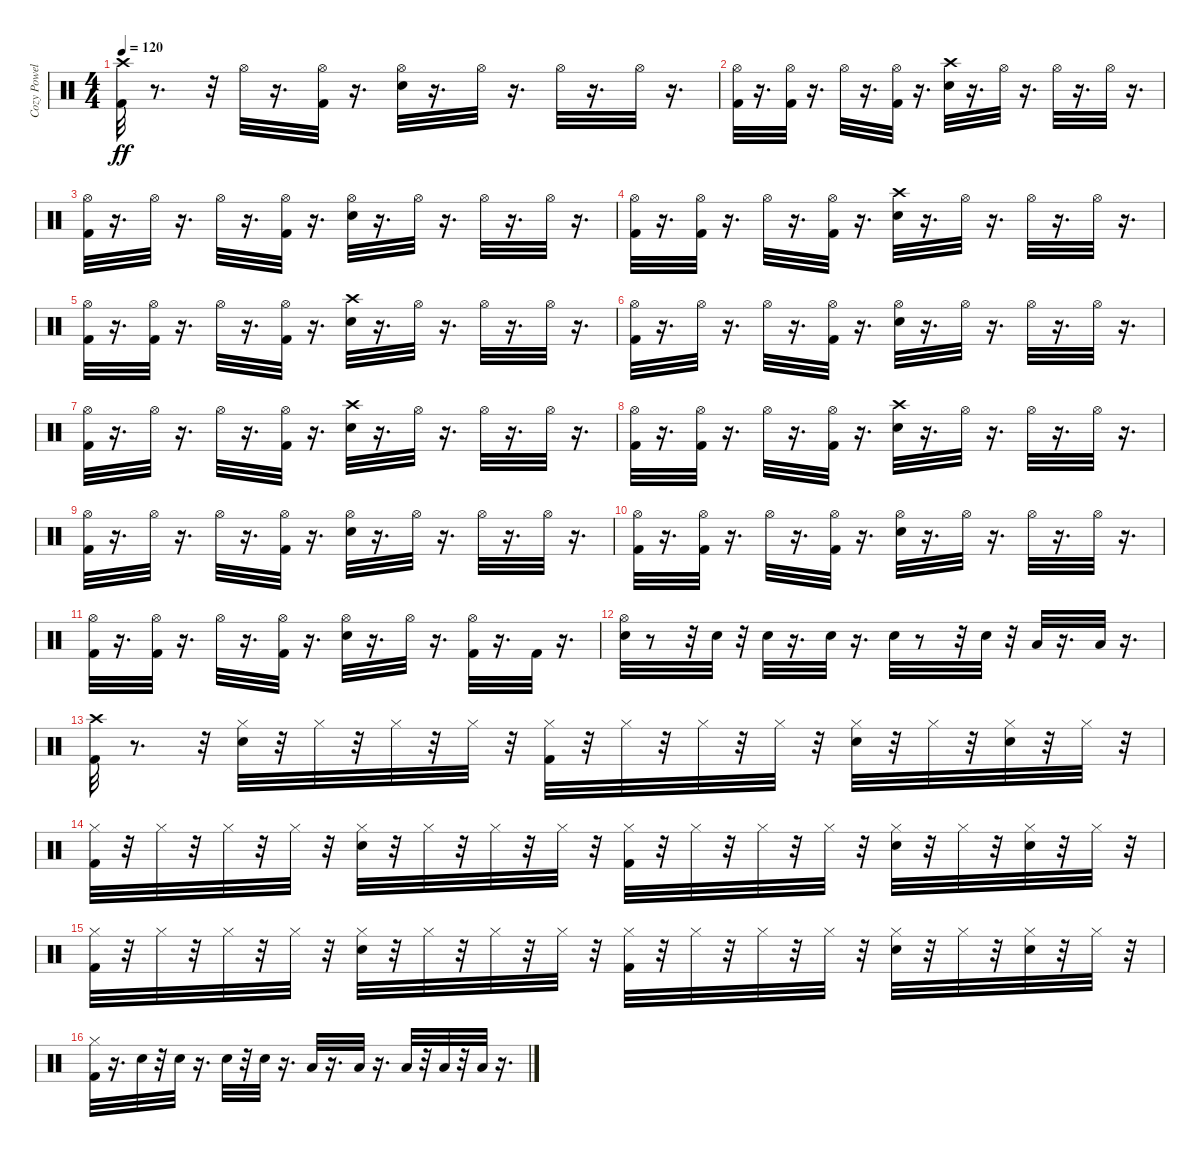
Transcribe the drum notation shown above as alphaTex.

\track ("Cozy Powel" "Cozy Powel") {instrument percussion}
\staff {score}
\articulation defaults
\ts (4 4)
\tempo 120
\clef neutral
\ks c
("Crash high (hit)" "Kick (hit) 2").32{dy ff} r.8{d} r.32 "Hi-Hat (open)".32 r.16{d} ("Kick (hit) 2" "Hi-Hat (open)").32 r.16{d} ("Snare (hit) 2" "Hi-Hat (open)").32 r.16{d} "Hi-Hat (open)".32 r.16{d} "Hi-Hat (open)".32 r.16{d} "Hi-Hat (open)".32 r.16{d} |
("Kick (hit) 2" "Hi-Hat (open)").32 r.16{d} ("Kick (hit) 2" "Hi-Hat (open)").32 r.16{d} "Hi-Hat (open)".32 r.16{d} ("Kick (hit) 2" "Hi-Hat (open)").32 r.16{d} ("Crash high (hit)" "Snare (hit) 2").32 r.16{d} "Hi-Hat (open)".32 r.16{d} "Hi-Hat (open)".32 r.16{d} "Hi-Hat (open)".32 r.16{d} |
("Kick (hit) 2" "Hi-Hat (open)").32 r.16{d} "Hi-Hat (open)".32 r.16{d} "Hi-Hat (open)".32 r.16{d} ("Kick (hit) 2" "Hi-Hat (open)").32 r.16{d} ("Snare (hit) 2" "Hi-Hat (open)").32 r.16{d} "Hi-Hat (open)".32 r.16{d} "Hi-Hat (open)".32 r.16{d} "Hi-Hat (open)".32 r.16{d} |
("Kick (hit) 2" "Hi-Hat (open)").32 r.16{d} ("Kick (hit) 2" "Hi-Hat (open)").32 r.16{d} "Hi-Hat (open)".32 r.16{d} ("Kick (hit) 2" "Hi-Hat (open)").32 r.16{d} ("Crash high (hit)" "Snare (hit) 2").32 r.16{d} "Hi-Hat (open)".32 r.16{d} "Hi-Hat (open)".32 r.16{d} "Hi-Hat (open)".32 r.16{d} |
("Kick (hit) 2" "Hi-Hat (open)").32 r.16{d} ("Kick (hit) 2" "Hi-Hat (open)").32 r.16{d} "Hi-Hat (open)".32 r.16{d} ("Kick (hit) 2" "Hi-Hat (open)").32 r.16{d} ("Snare (hit) 2" "Crash high (hit)").32 r.16{d} "Hi-Hat (open)".32 r.16{d} "Hi-Hat (open)".32 r.16{d} "Hi-Hat (open)".32 r.16{d} |
("Kick (hit) 2" "Hi-Hat (open)").32 r.16{d} "Hi-Hat (open)".32 r.16{d} "Hi-Hat (open)".32 r.16{d} ("Kick (hit) 2" "Hi-Hat (open)").32 r.16{d} ("Snare (hit) 2" "Hi-Hat (open)").32 r.16{d} "Hi-Hat (open)".32 r.16{d} "Hi-Hat (open)".32 r.16{d} "Hi-Hat (open)".32 r.16{d} |
("Kick (hit) 2" "Hi-Hat (open)").32 r.16{d} "Hi-Hat (open)".32 r.16{d} "Hi-Hat (open)".32 r.16{d} ("Kick (hit) 2" "Hi-Hat (open)").32 r.16{d} ("Snare (hit) 2" "Crash high (hit)").32 r.16{d} "Hi-Hat (open)".32 r.16{d} "Hi-Hat (open)".32 r.16{d} "Hi-Hat (open)".32 r.16{d} |
("Kick (hit) 2" "Hi-Hat (open)").32 r.16{d} ("Kick (hit) 2" "Hi-Hat (open)").32 r.16{d} "Hi-Hat (open)".32 r.16{d} ("Kick (hit) 2" "Hi-Hat (open)").32 r.16{d} ("Crash high (hit)" "Snare (hit) 2").32 r.16{d} "Hi-Hat (open)".32 r.16{d} "Hi-Hat (open)".32 r.16{d} "Hi-Hat (open)".32 r.16{d} |
("Kick (hit) 2" "Hi-Hat (open)").32 r.16{d} "Hi-Hat (open)".32 r.16{d} "Hi-Hat (open)".32 r.16{d} ("Kick (hit) 2" "Hi-Hat (open)").32 r.16{d} ("Snare (hit) 2" "Hi-Hat (open)").32 r.16{d} "Hi-Hat (open)".32 r.16{d} "Hi-Hat (open)".32 r.16{d} "Hi-Hat (open)".32 r.16{d} |
("Kick (hit) 2" "Hi-Hat (open)").32 r.16{d} ("Kick (hit) 2" "Hi-Hat (open)").32 r.16{d} "Hi-Hat (open)".32 r.16{d} ("Kick (hit) 2" "Hi-Hat (open)").32 r.16{d} ("Snare (hit) 2" "Hi-Hat (open)").32 r.16{d} "Hi-Hat (open)".32 r.16{d} "Hi-Hat (open)".32 r.16{d} "Hi-Hat (open)".32 r.16{d} |
("Kick (hit) 2" "Hi-Hat (open)").32 r.16{d} ("Kick (hit) 2" "Hi-Hat (open)").32 r.16{d} "Hi-Hat (open)".32 r.16{d} ("Kick (hit) 2" "Hi-Hat (open)").32 r.16{d} ("Snare (hit) 2" "Hi-Hat (open)").32 r.16{d} "Hi-Hat (open)".32 r.16{d} ("Kick (hit) 2" "Hi-Hat (open)").32 r.16{d} "Kick (hit) 2".32 r.16{d} |
("Snare (hit) 2" "Hi-Hat (open)").32 r.8 r.32 "Snare (hit) 2".32 r.32 "Snare (hit) 2".32 r.16{d} "Snare (hit) 2".32 r.16{d} "Snare (hit) 2".32 r.8 r.32 "Snare (hit) 2".32 r.32 "Low Floor Tom (hit)".32 r.16{d} "Low Floor Tom (hit)".32 r.16{d} |
("Kick (hit) 2" "Crash high (hit)").32 r.8{d} r.32 ("Snare (hit) 2" "Hi-Hat (closed)").32 r.32 "Hi-Hat (closed)".32 r.32 "Hi-Hat (closed)".32 r.32 "Hi-Hat (closed)".32 r.32 ("Kick (hit) 2" "Hi-Hat (closed)").32 r.32 "Hi-Hat (closed)".32 r.32 "Hi-Hat (closed)".32 r.32 "Hi-Hat (closed)".32 r.32 ("Snare (hit) 2" "Hi-Hat (closed)").32 r.32 "Hi-Hat (closed)".32 r.32 ("Snare (hit) 2" "Hi-Hat (closed)").32 r.32 "Hi-Hat (closed)".32 r.32 |
("Kick (hit) 2" "Hi-Hat (closed)").32 r.32 "Hi-Hat (closed)".32 r.32 "Hi-Hat (closed)".32 r.32 "Hi-Hat (closed)".32 r.32 ("Snare (hit) 2" "Hi-Hat (closed)").32 r.32 "Hi-Hat (closed)".32 r.32 "Hi-Hat (closed)".32 r.32 "Hi-Hat (closed)".32 r.32 ("Kick (hit) 2" "Hi-Hat (closed)").32 r.32 "Hi-Hat (closed)".32 r.32 "Hi-Hat (closed)".32 r.32 "Hi-Hat (closed)".32 r.32 ("Snare (hit) 2" "Hi-Hat (closed)").32 r.32 "Hi-Hat (closed)".32 r.32 ("Snare (hit) 2" "Hi-Hat (closed)").32 r.32 "Hi-Hat (closed)".32 r.32 |
("Kick (hit) 2" "Hi-Hat (closed)").32 r.32 "Hi-Hat (closed)".32 r.32 "Hi-Hat (closed)".32 r.32 "Hi-Hat (closed)".32 r.32 ("Snare (hit) 2" "Hi-Hat (closed)").32 r.32 "Hi-Hat (closed)".32 r.32 "Hi-Hat (closed)".32 r.32 "Hi-Hat (closed)".32 r.32 ("Kick (hit) 2" "Hi-Hat (closed)").32 r.32 "Hi-Hat (closed)".32 r.32 "Hi-Hat (closed)".32 r.32 "Hi-Hat (closed)".32 r.32 ("Snare (hit) 2" "Hi-Hat (closed)").32 r.32 "Hi-Hat (closed)".32 r.32 ("Snare (hit) 2" "Hi-Hat (closed)").32 r.32 "Hi-Hat (closed)".32 r.32 |
("Kick (hit) 2" "Hi-Hat (closed)").32 r.16{d} "Snare (hit) 2".32 r.32 "Snare (hit) 2".32 r.16{d} "Snare (hit) 2".32 r.32 "Snare (hit) 2".32 r.16{d} "Low Tom (hit)".32 r.16{d} "Low Tom (hit)".32 r.16{d} "Low Tom (hit)".32 r.32 "Low Tom (hit)".32 r.32 "Low Tom (hit)".32 r.16{d}
